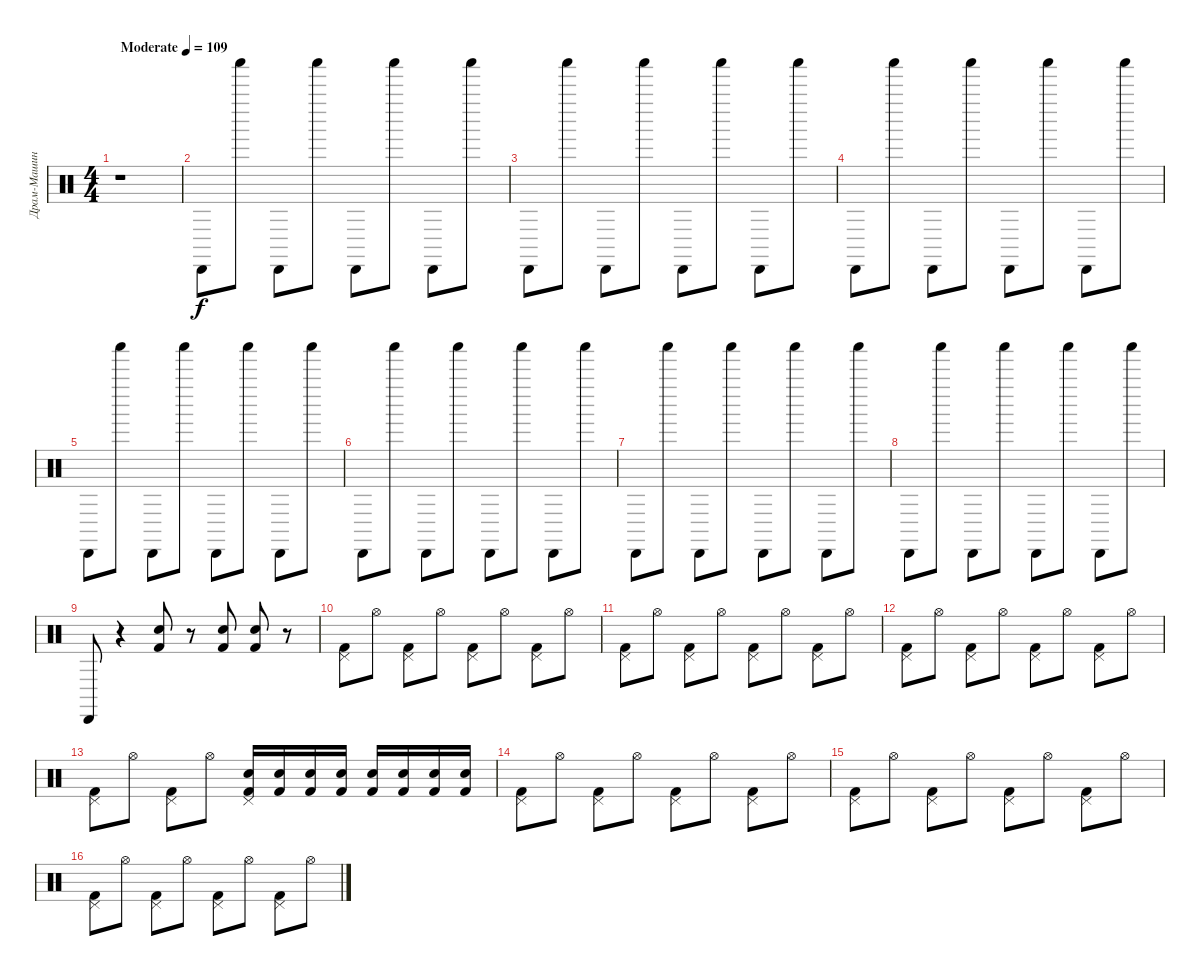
\track ("Драм-Машина" "Драм-Машин") {instrument percussion}
\staff {score}
\articulation defaults
\ts (4 4)
\tempo (109 "Moderate")
\clef neutral
\ks c
r.1{dy f} |
"Cabasa (hit)".8 "Shaker (hit)".8 "Cabasa (hit)".8 "Shaker (hit)".8 "Cabasa (hit)".8 "Shaker (hit)".8 "Cabasa (hit)".8 "Shaker (hit)".8 |
"Cabasa (hit)".8 "Shaker (hit)".8 "Cabasa (hit)".8 "Shaker (hit)".8 "Cabasa (hit)".8 "Shaker (hit)".8 "Cabasa (hit)".8 "Shaker (hit)".8 |
"Cabasa (hit)".8 "Shaker (hit)".8 "Cabasa (hit)".8 "Shaker (hit)".8 "Cabasa (hit)".8 "Shaker (hit)".8 "Cabasa (hit)".8 "Shaker (hit)".8 |
"Cabasa (hit)".8 "Shaker (hit)".8 "Cabasa (hit)".8 "Shaker (hit)".8 "Cabasa (hit)".8 "Shaker (hit)".8 "Cabasa (hit)".8 "Shaker (hit)".8 |
"Cabasa (hit)".8 "Shaker (hit)".8 "Cabasa (hit)".8 "Shaker (hit)".8 "Cabasa (hit)".8 "Shaker (hit)".8 "Cabasa (hit)".8 "Shaker (hit)".8 |
"Cabasa (hit)".8 "Shaker (hit)".8 "Cabasa (hit)".8 "Shaker (hit)".8 "Cabasa (hit)".8 "Shaker (hit)".8 "Cabasa (hit)".8 "Shaker (hit)".8 |
"Cabasa (hit)".8 "Shaker (hit)".8 "Cabasa (hit)".8 "Shaker (hit)".8 "Cabasa (hit)".8 "Shaker (hit)".8 "Cabasa (hit)".8 "Shaker (hit)".8 |
"Cabasa (hit)".8 r.4 ("Kick (hit) 2" "Snare (hit) 2").8 r.8 ("Kick (hit) 2" "Snare (hit) 2").8 ("Kick (hit) 2" "Snare (hit) 2").8 r.8 |
("Pedal Hi-Hat (hit)" "Kick (hit) 2").8 "Hi-Hat (open)".8 ("Pedal Hi-Hat (hit)" "Kick (hit) 2").8 "Hi-Hat (open)".8 ("Pedal Hi-Hat (hit)" "Kick (hit) 2").8 "Hi-Hat (open)".8 ("Kick (hit) 2" "Pedal Hi-Hat (hit)").8 "Hi-Hat (open)".8 |
("Pedal Hi-Hat (hit)" "Kick (hit) 2").8 "Hi-Hat (open)".8 ("Kick (hit) 2" "Pedal Hi-Hat (hit)").8 "Hi-Hat (open)".8 ("Kick (hit) 2" "Pedal Hi-Hat (hit)").8 "Hi-Hat (open)".8 ("Pedal Hi-Hat (hit)" "Kick (hit) 2").8 "Hi-Hat (open)".8 |
("Kick (hit) 2" "Pedal Hi-Hat (hit)").8 "Hi-Hat (open)".8 ("Kick (hit) 2" "Pedal Hi-Hat (hit)").8 "Hi-Hat (open)".8 ("Kick (hit) 2" "Pedal Hi-Hat (hit)").8 "Hi-Hat (open)".8 ("Kick (hit) 2" "Pedal Hi-Hat (hit)").8 "Hi-Hat (open)".8 |
("Kick (hit) 2" "Pedal Hi-Hat (hit)").8 "Hi-Hat (open)".8 ("Pedal Hi-Hat (hit)" "Kick (hit) 2").8 "Hi-Hat (open)".8 ("Pedal Hi-Hat (hit)" "Kick (hit) 2" "Electric Snare (hit)").16 ("Kick (hit) 2" "Electric Snare (hit)").16 ("Kick (hit) 2" "Electric Snare (hit)").16 ("Kick (hit) 2" "Electric Snare (hit)").16 ("Snare (hit) 2" "Kick (hit) 2").16 ("Kick (hit) 2" "Snare (hit) 2").16 ("Kick (hit) 2" "Snare (hit) 2").16 ("Snare (hit) 2" "Kick (hit) 2").16 |
("Kick (hit) 2" "Pedal Hi-Hat (hit)").8 "Hi-Hat (open)".8 ("Kick (hit) 2" "Pedal Hi-Hat (hit)").8 "Hi-Hat (open)".8 ("Kick (hit) 2" "Pedal Hi-Hat (hit)").8 "Hi-Hat (open)".8 ("Kick (hit) 2" "Pedal Hi-Hat (hit)").8 "Hi-Hat (open)".8 |
("Kick (hit) 2" "Pedal Hi-Hat (hit)").8 "Hi-Hat (open)".8 ("Pedal Hi-Hat (hit)" "Kick (hit) 2").8 "Hi-Hat (open)".8 ("Pedal Hi-Hat (hit)" "Kick (hit) 2").8 "Hi-Hat (open)".8 ("Kick (hit) 2" "Pedal Hi-Hat (hit)").8 "Hi-Hat (open)".8 |
("Kick (hit) 2" "Pedal Hi-Hat (hit)").8 "Hi-Hat (open)".8 ("Pedal Hi-Hat (hit)" "Kick (hit) 2").8 "Hi-Hat (open)".8 ("Kick (hit) 2" "Pedal Hi-Hat (hit)").8 "Hi-Hat (open)".8 ("Pedal Hi-Hat (hit)" "Kick (hit) 2").8 "Hi-Hat (open)".8
